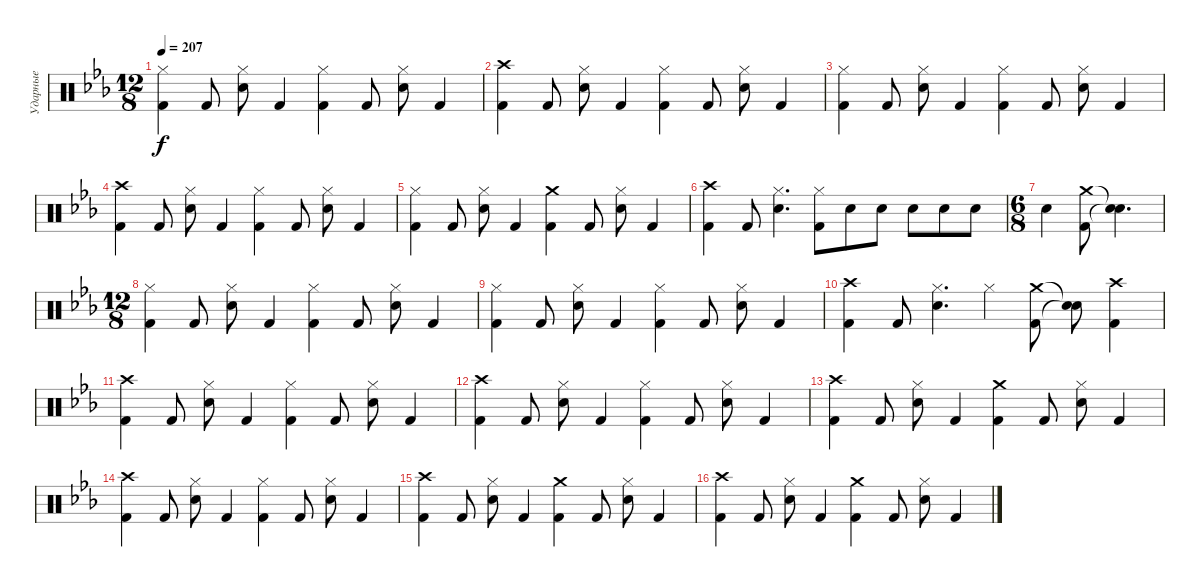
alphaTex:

\track ("Ударные" "Ударные") {instrument percussion}
\staff {score}
\articulation defaults
\ts (12 8)
\tempo 207
\clef neutral
\ks eb
("Hi-Hat (closed)" "Kick (hit) 2").4{dy f} "Kick (hit) 2".8 ("Hi-Hat (closed)" "Snare (hit) 2").8 "Kick (hit) 2".4 ("Hi-Hat (closed)" "Kick (hit) 2").4 "Kick (hit) 2".8 ("Hi-Hat (closed)" "Snare (hit) 2").8 "Kick (hit) 2".4 |
("Crash high (hit)" "Kick (hit) 2").4 "Kick (hit) 2".8 ("Hi-Hat (closed)" "Snare (hit) 2").8 "Kick (hit) 2".4 ("Hi-Hat (closed)" "Kick (hit) 2").4 "Kick (hit) 2".8 ("Hi-Hat (closed)" "Snare (hit) 2").8 "Kick (hit) 2".4 |
("Hi-Hat (closed)" "Kick (hit) 2").4 "Kick (hit) 2".8 ("Hi-Hat (closed)" "Snare (hit) 2").8 "Kick (hit) 2".4 ("Hi-Hat (closed)" "Kick (hit) 2").4 "Kick (hit) 2".8 ("Hi-Hat (closed)" "Snare (hit) 2").8 "Kick (hit) 2".4 |
("Crash high (hit)" "Kick (hit) 2").4 "Kick (hit) 2".8 ("Hi-Hat (closed)" "Snare (hit) 2").8 "Kick (hit) 2".4 ("Hi-Hat (closed)" "Kick (hit) 2").4 "Kick (hit) 2".8 ("Hi-Hat (closed)" "Snare (hit) 2").8 "Kick (hit) 2".4 |
("Hi-Hat (closed)" "Kick (hit) 2").4 "Kick (hit) 2".8 ("Hi-Hat (closed)" "Snare (hit) 2").8 "Kick (hit) 2".4 ("Crash medium (hit)" "Kick (hit) 2").4 "Kick (hit) 2".8 ("Hi-Hat (closed)" "Snare (hit) 2").8 "Kick (hit) 2".4 |
("Crash high (hit)" "Kick (hit) 2").4 "Kick (hit) 2".8 ("Hi-Hat (closed)" "Snare (hit) 2").4{d} ("Hi-Hat (closed)" "Kick (hit) 2").8 "Snare (hit) 2".8 "Snare (hit) 2".8 "Snare (hit) 2".8 "Snare (hit) 2".8 "Snare (hit) 2".8 |
\ts (6 8)
"Snare (hit) 2".4 ("Crash medium (hit)" "Kick (hit) 2").8 ("Snare (hit)"{t} "Snare (hit)"{t}).4{d} |
\ts (12 8)
("Hi-Hat (closed)" "Kick (hit) 2").4 "Kick (hit) 2".8 ("Hi-Hat (closed)" "Snare (hit) 2").8 "Kick (hit) 2".4 ("Hi-Hat (closed)" "Kick (hit) 2").4 "Kick (hit) 2".8 ("Hi-Hat (closed)" "Snare (hit) 2").8 "Kick (hit) 2".4 |
("Hi-Hat (closed)" "Kick (hit) 2").4 "Kick (hit) 2".8 ("Hi-Hat (closed)" "Snare (hit) 2").8 "Kick (hit) 2".4 ("Hi-Hat (closed)" "Kick (hit) 2").4 "Kick (hit) 2".8 ("Hi-Hat (closed)" "Snare (hit) 2").8 "Kick (hit) 2".4 |
("Crash high (hit)" "Kick (hit) 2").4 "Kick (hit) 2".8 ("Hi-Hat (closed)" "Snare (hit) 2").4{d} "Hi-Hat (closed)".4 ("Crash medium (hit)" "Kick (hit) 2").8 ("Snare (hit)"{t} "Snare (hit)"{t}).8 ("Crash high (hit)" "Kick (hit) 2").4 |
("Crash high (hit)" "Kick (hit) 2").4 "Kick (hit) 2".8 ("Hi-Hat (closed)" "Snare (hit) 2").8 "Kick (hit) 2".4 ("Hi-Hat (closed)" "Kick (hit) 2").4 "Kick (hit) 2".8 ("Hi-Hat (closed)" "Snare (hit) 2").8 "Kick (hit) 2".4 |
("Crash high (hit)" "Kick (hit) 2").4 "Kick (hit) 2".8 ("Hi-Hat (closed)" "Snare (hit) 2").8 "Kick (hit) 2".4 ("Hi-Hat (closed)" "Kick (hit) 2").4 "Kick (hit) 2".8 ("Hi-Hat (closed)" "Snare (hit) 2").8 "Kick (hit) 2".4 |
("Crash high (hit)" "Kick (hit) 2").4 "Kick (hit) 2".8 ("Hi-Hat (closed)" "Snare (hit) 2").8 "Kick (hit) 2".4 ("Crash medium (hit)" "Kick (hit) 2").4 "Kick (hit) 2".8 ("Hi-Hat (closed)" "Snare (hit) 2").8 "Kick (hit) 2".4 |
("Crash high (hit)" "Kick (hit) 2").4 "Kick (hit) 2".8 ("Hi-Hat (closed)" "Snare (hit) 2").8 "Kick (hit) 2".4 ("Hi-Hat (closed)" "Kick (hit) 2").4 "Kick (hit) 2".8 ("Hi-Hat (closed)" "Snare (hit) 2").8 "Kick (hit) 2".4 |
("Crash high (hit)" "Kick (hit) 2").4 "Kick (hit) 2".8 ("Hi-Hat (closed)" "Snare (hit) 2").8 "Kick (hit) 2".4 ("Crash medium (hit)" "Kick (hit) 2").4 "Kick (hit) 2".8 ("Hi-Hat (closed)" "Snare (hit) 2").8 "Kick (hit) 2".4 |
("Crash high (hit)" "Kick (hit) 2").4 "Kick (hit) 2".8 ("Hi-Hat (closed)" "Snare (hit) 2").8 "Kick (hit) 2".4 ("Crash medium (hit)" "Kick (hit) 2").4 "Kick (hit) 2".8 ("Hi-Hat (closed)" "Snare (hit) 2").8 "Kick (hit) 2".4
